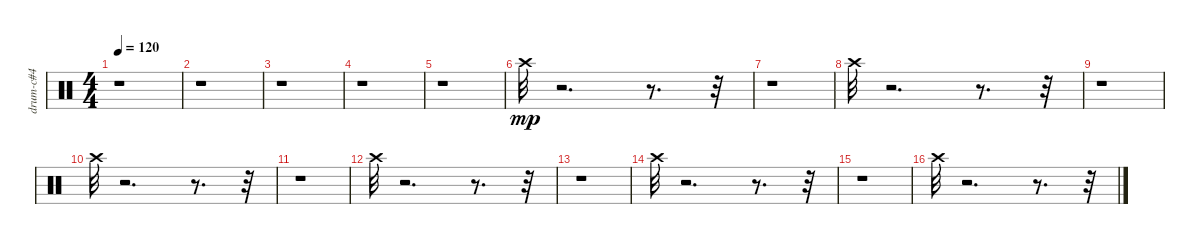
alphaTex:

\track ("drum-c#4" "drum-c#4") {instrument percussion}
\staff {score}
\articulation defaults
\ts (4 4)
\tempo 120
\clef neutral
\ks c
r.1{dy mp} |
r.1 |
r.1 |
r.1 |
r.1 |
"Crash high (hit)".32 r.2{d} r.8{d} r.32 |
r.1 |
"Crash high (hit)".32 r.2{d} r.8{d} r.32 |
r.1 |
"Crash high (hit)".32 r.2{d} r.8{d} r.32 |
r.1 |
"Crash high (hit)".32 r.2{d} r.8{d} r.32 |
r.1 |
"Crash high (hit)".32 r.2{d} r.8{d} r.32 |
r.1 |
"Crash high (hit)".32 r.2{d} r.8{d} r.32
